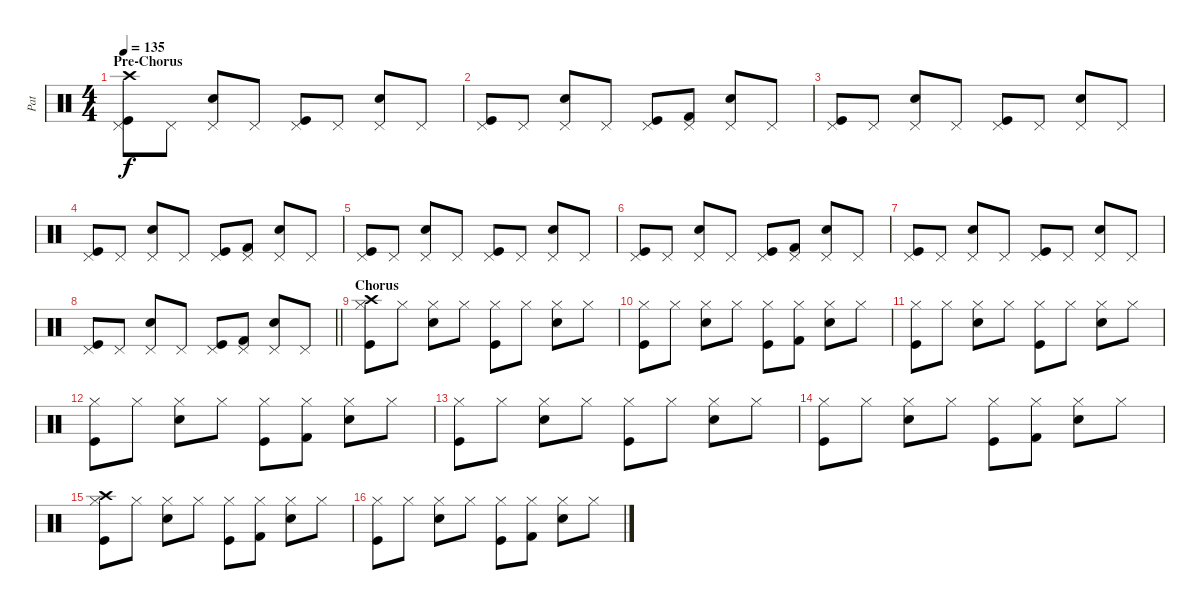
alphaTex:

\track ("Pat" "Pat") {instrument percussion}
\staff {score}
\articulation defaults
\ts (4 4)
\section ("" "Pre-Chorus")
\tempo 135
\clef neutral
\ks c
("Crash high (hit)" "Pedal Hi-Hat (hit)" "Kick (hit)").8{dy f} "Pedal Hi-Hat (hit)".8 ("Pedal Hi-Hat (hit)" "Snare (hit) 2").8 "Pedal Hi-Hat (hit)".8 ("Pedal Hi-Hat (hit)" "Kick (hit)").8 "Pedal Hi-Hat (hit)".8 ("Pedal Hi-Hat (hit)" "Snare (hit) 2").8 "Pedal Hi-Hat (hit)".8 |
("Pedal Hi-Hat (hit)" "Kick (hit)").8 "Pedal Hi-Hat (hit)".8 ("Pedal Hi-Hat (hit)" "Snare (hit) 2").8 "Pedal Hi-Hat (hit)".8 ("Pedal Hi-Hat (hit)" "Kick (hit)").8 ("Pedal Hi-Hat (hit)" "Kick (hit) 2").8 ("Pedal Hi-Hat (hit)" "Snare (hit) 2").8 "Pedal Hi-Hat (hit)".8 |
("Pedal Hi-Hat (hit)" "Kick (hit)").8 "Pedal Hi-Hat (hit)".8 ("Pedal Hi-Hat (hit)" "Snare (hit) 2").8 "Pedal Hi-Hat (hit)".8 ("Pedal Hi-Hat (hit)" "Kick (hit)").8 "Pedal Hi-Hat (hit)".8 ("Pedal Hi-Hat (hit)" "Snare (hit) 2").8 "Pedal Hi-Hat (hit)".8 |
("Pedal Hi-Hat (hit)" "Kick (hit)").8 "Pedal Hi-Hat (hit)".8 ("Pedal Hi-Hat (hit)" "Snare (hit) 2").8 "Pedal Hi-Hat (hit)".8 ("Pedal Hi-Hat (hit)" "Kick (hit)").8 ("Pedal Hi-Hat (hit)" "Kick (hit) 2").8 ("Pedal Hi-Hat (hit)" "Snare (hit) 2").8 "Pedal Hi-Hat (hit)".8 |
("Pedal Hi-Hat (hit)" "Kick (hit)").8 "Pedal Hi-Hat (hit)".8 ("Pedal Hi-Hat (hit)" "Snare (hit) 2").8 "Pedal Hi-Hat (hit)".8 ("Pedal Hi-Hat (hit)" "Kick (hit)").8 "Pedal Hi-Hat (hit)".8 ("Pedal Hi-Hat (hit)" "Snare (hit) 2").8 "Pedal Hi-Hat (hit)".8 |
("Pedal Hi-Hat (hit)" "Kick (hit)").8 "Pedal Hi-Hat (hit)".8 ("Pedal Hi-Hat (hit)" "Snare (hit) 2").8 "Pedal Hi-Hat (hit)".8 ("Pedal Hi-Hat (hit)" "Kick (hit)").8 ("Pedal Hi-Hat (hit)" "Kick (hit) 2").8 ("Pedal Hi-Hat (hit)" "Snare (hit) 2").8 "Pedal Hi-Hat (hit)".8 |
("Pedal Hi-Hat (hit)" "Kick (hit)").8 "Pedal Hi-Hat (hit)".8 ("Pedal Hi-Hat (hit)" "Snare (hit) 2").8 "Pedal Hi-Hat (hit)".8 ("Pedal Hi-Hat (hit)" "Kick (hit)").8 "Pedal Hi-Hat (hit)".8 ("Pedal Hi-Hat (hit)" "Snare (hit) 2").8 "Pedal Hi-Hat (hit)".8 |
\barLineRight lightlight
("Pedal Hi-Hat (hit)" "Kick (hit)").8 "Pedal Hi-Hat (hit)".8 ("Pedal Hi-Hat (hit)" "Snare (hit) 2").8 "Pedal Hi-Hat (hit)".8 ("Pedal Hi-Hat (hit)" "Kick (hit)").8 ("Pedal Hi-Hat (hit)" "Kick (hit) 2").8 ("Pedal Hi-Hat (hit)" "Snare (hit) 2").8 "Pedal Hi-Hat (hit)".8 |
\section ("" "Chorus")
("Crash high (hit)" "Hi-Hat (closed)" "Kick (hit)").8 "Hi-Hat (closed)".8 ("Hi-Hat (closed)" "Snare (hit) 2").8 "Hi-Hat (closed)".8 ("Hi-Hat (closed)" "Kick (hit)").8 "Hi-Hat (closed)".8 ("Hi-Hat (closed)" "Snare (hit) 2").8 "Hi-Hat (closed)".8 |
("Hi-Hat (closed)" "Kick (hit)").8 "Hi-Hat (closed)".8 ("Hi-Hat (closed)" "Snare (hit) 2").8 "Hi-Hat (closed)".8 ("Hi-Hat (closed)" "Kick (hit)").8 ("Hi-Hat (closed)" "Kick (hit) 2").8 ("Hi-Hat (closed)" "Snare (hit) 2").8 "Hi-Hat (closed)".8 |
("Hi-Hat (closed)" "Kick (hit)").8 "Hi-Hat (closed)".8 ("Hi-Hat (closed)" "Snare (hit) 2").8 "Hi-Hat (closed)".8 ("Hi-Hat (closed)" "Kick (hit)").8 "Hi-Hat (closed)".8 ("Hi-Hat (closed)" "Snare (hit) 2").8 "Hi-Hat (closed)".8 |
("Hi-Hat (closed)" "Kick (hit)").8 "Hi-Hat (closed)".8 ("Hi-Hat (closed)" "Snare (hit) 2").8 "Hi-Hat (closed)".8 ("Hi-Hat (closed)" "Kick (hit)").8 ("Hi-Hat (closed)" "Kick (hit) 2").8 ("Hi-Hat (closed)" "Snare (hit) 2").8 "Hi-Hat (closed)".8 |
("Hi-Hat (closed)" "Kick (hit)").8 "Hi-Hat (closed)".8 ("Hi-Hat (closed)" "Snare (hit) 2").8 "Hi-Hat (closed)".8 ("Hi-Hat (closed)" "Kick (hit)").8 "Hi-Hat (closed)".8 ("Hi-Hat (closed)" "Snare (hit) 2").8 "Hi-Hat (closed)".8 |
("Hi-Hat (closed)" "Kick (hit)").8 "Hi-Hat (closed)".8 ("Hi-Hat (closed)" "Snare (hit) 2").8 "Hi-Hat (closed)".8 ("Hi-Hat (closed)" "Kick (hit)").8 ("Hi-Hat (closed)" "Kick (hit) 2").8 ("Hi-Hat (closed)" "Snare (hit) 2").8 "Hi-Hat (closed)".8 |
("Crash high (hit)" "Hi-Hat (closed)" "Kick (hit)").8 "Hi-Hat (closed)".8 ("Hi-Hat (closed)" "Snare (hit) 2").8 "Hi-Hat (closed)".8 ("Hi-Hat (closed)" "Kick (hit)").8 ("Hi-Hat (closed)" "Kick (hit) 2").8 ("Hi-Hat (closed)" "Snare (hit) 2").8 "Hi-Hat (closed)".8 |
("Hi-Hat (closed)" "Kick (hit)").8 "Hi-Hat (closed)".8 ("Hi-Hat (closed)" "Snare (hit) 2").8 "Hi-Hat (closed)".8 ("Hi-Hat (closed)" "Kick (hit)").8 ("Hi-Hat (closed)" "Kick (hit) 2").8 ("Hi-Hat (closed)" "Snare (hit) 2").8 "Hi-Hat (closed)".8
